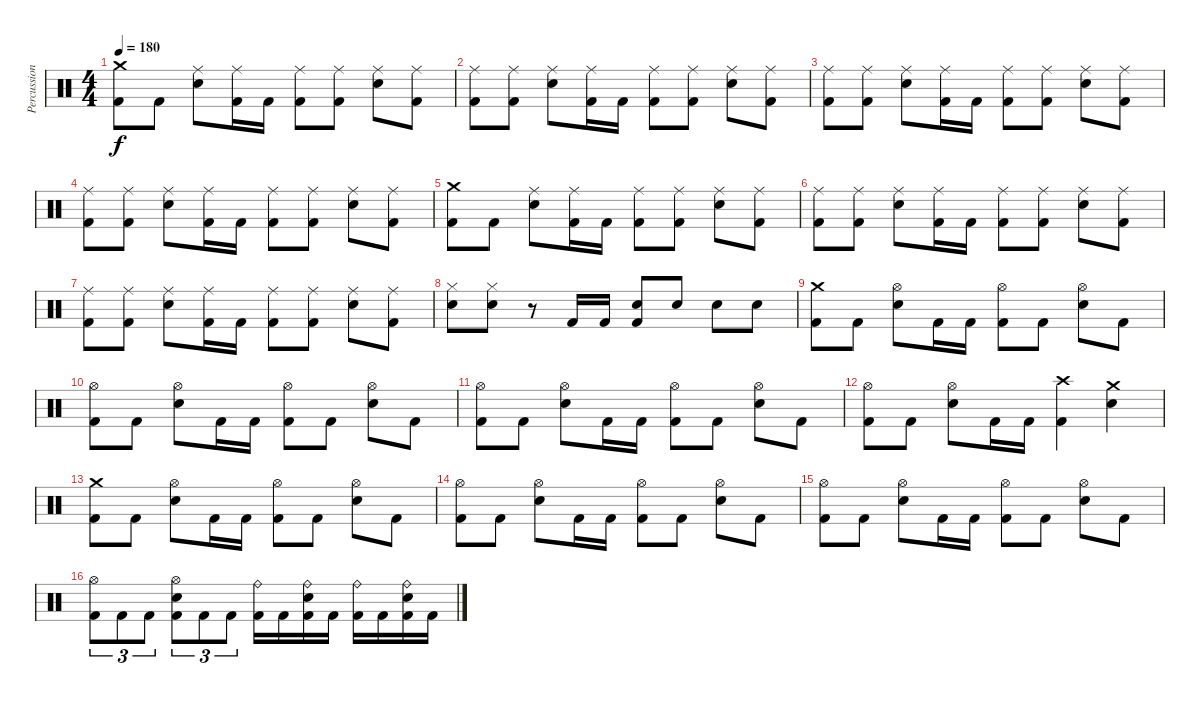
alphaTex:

\track ("Percussions" "Percussion") {instrument percussion}
\staff {score}
\articulation defaults
\ts (4 4)
\tempo 180
\clef neutral
\ks c
("Kick (hit) 2" "Crash medium (hit)").8{dy f volume 0} "Kick (hit) 2".8 ("Electric Snare (hit)" "Ride (middle)").8{volume 1} ("Kick (hit) 2" "Ride (middle)").16 "Kick (hit) 2".16 ("Kick (hit) 2" "Ride (middle)").8{volume 2} ("Kick (hit) 2" "Ride (middle)").8 ("Electric Snare (hit)" "Ride (middle)").8{volume 3} ("Kick (hit) 2" "Ride (middle)").8 |
("Kick (hit) 2" "Ride (middle)").8{volume 4} ("Kick (hit) 2" "Ride (middle)").8 ("Electric Snare (hit)" "Ride (middle)").8{volume 5} ("Kick (hit) 2" "Ride (middle)").16 "Kick (hit) 2".16 ("Kick (hit) 2" "Ride (middle)").8{volume 6} ("Kick (hit) 2" "Ride (middle)").8 ("Electric Snare (hit)" "Ride (middle)").8{volume 7} ("Kick (hit) 2" "Ride (middle)").8 |
("Kick (hit) 2" "Ride (middle)").8{volume 8} ("Kick (hit) 2" "Ride (middle)").8 ("Electric Snare (hit)" "Ride (middle)").8{volume 9} ("Kick (hit) 2" "Ride (middle)").16 "Kick (hit) 2".16 ("Kick (hit) 2" "Ride (middle)").8{volume 10} ("Kick (hit) 2" "Ride (middle)").8 ("Electric Snare (hit)" "Ride (middle)").8{volume 11} ("Kick (hit) 2" "Ride (middle)").8 |
("Kick (hit) 2" "Ride (middle)").8{volume 12} ("Kick (hit) 2" "Ride (middle)").8 ("Electric Snare (hit)" "Ride (middle)").8{volume 13} ("Kick (hit) 2" "Ride (middle)").16 "Kick (hit) 2".16 ("Kick (hit) 2" "Ride (middle)").8{volume 14} ("Kick (hit) 2" "Ride (middle)").8 ("Electric Snare (hit)" "Ride (middle)").8{volume 15} ("Kick (hit) 2" "Ride (middle)").8 |
("Kick (hit) 2" "Crash medium (hit)").8 "Kick (hit) 2".8 ("Electric Snare (hit)" "Ride (middle)").8 ("Kick (hit) 2" "Ride (middle)").16 "Kick (hit) 2".16 ("Kick (hit) 2" "Ride (middle)").8 ("Kick (hit) 2" "Ride (middle)").8 ("Electric Snare (hit)" "Ride (middle)").8 ("Kick (hit) 2" "Ride (middle)").8 |
("Kick (hit) 2" "Ride (middle)").8 ("Kick (hit) 2" "Ride (middle)").8 ("Electric Snare (hit)" "Ride (middle)").8 ("Kick (hit) 2" "Ride (middle)").16 "Kick (hit) 2".16 ("Kick (hit) 2" "Ride (middle)").8 ("Kick (hit) 2" "Ride (middle)").8 ("Electric Snare (hit)" "Ride (middle)").8 ("Kick (hit) 2" "Ride (middle)").8 |
("Kick (hit) 2" "Ride (middle)").8 ("Kick (hit) 2" "Ride (middle)").8 ("Electric Snare (hit)" "Ride (middle)").8 ("Kick (hit) 2" "Ride (middle)").16 "Kick (hit) 2".16 ("Kick (hit) 2" "Ride (middle)").8 ("Kick (hit) 2" "Ride (middle)").8 ("Electric Snare (hit)" "Ride (middle)").8 ("Kick (hit) 2" "Ride (middle)").8 |
("Electric Snare (hit)" "Hi-Hat (closed)").8 ("Electric Snare (hit)" "Hi-Hat (closed)").8 r.8 "Kick (hit) 2".16 "Kick (hit) 2".16 ("Kick (hit) 2" "Electric Snare (hit)").8 "Electric Snare (hit)".8 "Electric Snare (hit)".8 "Electric Snare (hit)".8 |
("Kick (hit) 2" "Crash medium (hit)").8 "Kick (hit) 2".8 ("Electric Snare (hit)" "Hi-Hat (open)").8 "Kick (hit) 2".16 "Kick (hit) 2".16 ("Kick (hit) 2" "Hi-Hat (open)").8 "Kick (hit) 2".8 ("Electric Snare (hit)" "Hi-Hat (open)").8 "Kick (hit) 2".8 |
("Kick (hit) 2" "Hi-Hat (open)").8 "Kick (hit) 2".8 ("Electric Snare (hit)" "Hi-Hat (open)").8 "Kick (hit) 2".16 "Kick (hit) 2".16 ("Kick (hit) 2" "Hi-Hat (open)").8 "Kick (hit) 2".8 ("Electric Snare (hit)" "Hi-Hat (open)").8 "Kick (hit) 2".8 |
("Kick (hit) 2" "Hi-Hat (open)").8 "Kick (hit) 2".8 ("Electric Snare (hit)" "Hi-Hat (open)").8 "Kick (hit) 2".16 "Kick (hit) 2".16 ("Kick (hit) 2" "Hi-Hat (open)").8 "Kick (hit) 2".8 ("Electric Snare (hit)" "Hi-Hat (open)").8 "Kick (hit) 2".8 |
("Kick (hit) 2" "Hi-Hat (open)").8 "Kick (hit) 2".8 ("Electric Snare (hit)" "Hi-Hat (open)").8 "Kick (hit) 2".16 "Kick (hit) 2".16 ("Kick (hit) 2" "Crash high (hit)").4 ("Electric Snare (hit)" "Crash medium (hit)").4 |
("Kick (hit) 2" "Crash medium (hit)").8 "Kick (hit) 2".8 ("Electric Snare (hit)" "Hi-Hat (open)").8 "Kick (hit) 2".16 "Kick (hit) 2".16 ("Kick (hit) 2" "Hi-Hat (open)").8 "Kick (hit) 2".8 ("Electric Snare (hit)" "Hi-Hat (open)").8 "Kick (hit) 2".8 |
("Kick (hit) 2" "Hi-Hat (open)").8 "Kick (hit) 2".8 ("Electric Snare (hit)" "Hi-Hat (open)").8 "Kick (hit) 2".16 "Kick (hit) 2".16 ("Kick (hit) 2" "Hi-Hat (open)").8 "Kick (hit) 2".8 ("Electric Snare (hit)" "Hi-Hat (open)").8 "Kick (hit) 2".8 |
("Kick (hit) 2" "Hi-Hat (open)").8 "Kick (hit) 2".8 ("Electric Snare (hit)" "Hi-Hat (open)").8 "Kick (hit) 2".16 "Kick (hit) 2".16 ("Kick (hit) 2" "Hi-Hat (open)").8 "Kick (hit) 2".8 ("Electric Snare (hit)" "Hi-Hat (open)").8 "Kick (hit) 2".8 |
("Kick (hit) 2" "Hi-Hat (open)").8{tu (3 2)} "Kick (hit) 2".8{tu (3 2)} "Kick (hit) 2".8{tu (3 2)} ("Kick (hit) 2" "Electric Snare (hit)" "Hi-Hat (open)").8{tu (3 2)} "Kick (hit) 2".8{tu (3 2)} "Kick (hit) 2".8{tu (3 2)} ("Kick (hit) 2" "Ride (bell)").16 "Kick (hit) 2".16 ("Kick (hit) 2" "Electric Snare (hit)" "Ride (bell)").16 "Kick (hit) 2".16 ("Kick (hit) 2" "Ride (bell)").16 "Kick (hit) 2".16 ("Kick (hit) 2" "Electric Snare (hit)" "Ride (bell)").16 "Kick (hit) 2".16
